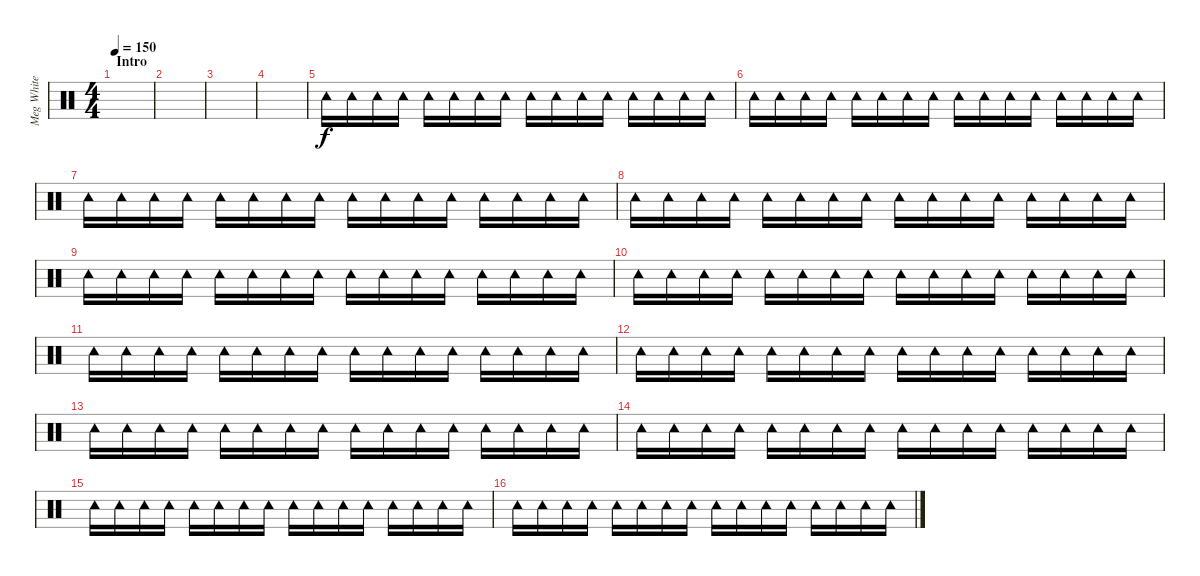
\track ("Meg White - Tambourine" "Meg White ") {instrument percussion}
\staff {score}
\articulation defaults
\ts (4 4)
\section ("" "Intro")
\tempo 150
\clef neutral
\ks c
|
|
|
|
"Tambourine (hit)".16 "Tambourine (hit)".16 "Tambourine (hit)".16 "Tambourine (hit)".16 "Tambourine (hit)".16 "Tambourine (hit)".16 "Tambourine (hit)".16 "Tambourine (hit)".16 "Tambourine (hit)".16 "Tambourine (hit)".16 "Tambourine (hit)".16 "Tambourine (hit)".16 "Tambourine (hit)".16 "Tambourine (hit)".16 "Tambourine (hit)".16 "Tambourine (hit)".16 |
"Tambourine (hit)".16 "Tambourine (hit)".16 "Tambourine (hit)".16 "Tambourine (hit)".16 "Tambourine (hit)".16 "Tambourine (hit)".16 "Tambourine (hit)".16 "Tambourine (hit)".16 "Tambourine (hit)".16 "Tambourine (hit)".16 "Tambourine (hit)".16 "Tambourine (hit)".16 "Tambourine (hit)".16 "Tambourine (hit)".16 "Tambourine (hit)".16 "Tambourine (hit)".16 |
"Tambourine (hit)".16 "Tambourine (hit)".16 "Tambourine (hit)".16 "Tambourine (hit)".16 "Tambourine (hit)".16 "Tambourine (hit)".16 "Tambourine (hit)".16 "Tambourine (hit)".16 "Tambourine (hit)".16 "Tambourine (hit)".16 "Tambourine (hit)".16 "Tambourine (hit)".16 "Tambourine (hit)".16 "Tambourine (hit)".16 "Tambourine (hit)".16 "Tambourine (hit)".16 |
"Tambourine (hit)".16 "Tambourine (hit)".16 "Tambourine (hit)".16 "Tambourine (hit)".16 "Tambourine (hit)".16 "Tambourine (hit)".16 "Tambourine (hit)".16 "Tambourine (hit)".16 "Tambourine (hit)".16 "Tambourine (hit)".16 "Tambourine (hit)".16 "Tambourine (hit)".16 "Tambourine (hit)".16 "Tambourine (hit)".16 "Tambourine (hit)".16 "Tambourine (hit)".16 |
"Tambourine (hit)".16 "Tambourine (hit)".16 "Tambourine (hit)".16 "Tambourine (hit)".16 "Tambourine (hit)".16 "Tambourine (hit)".16 "Tambourine (hit)".16 "Tambourine (hit)".16 "Tambourine (hit)".16 "Tambourine (hit)".16 "Tambourine (hit)".16 "Tambourine (hit)".16 "Tambourine (hit)".16 "Tambourine (hit)".16 "Tambourine (hit)".16 "Tambourine (hit)".16 |
"Tambourine (hit)".16 "Tambourine (hit)".16 "Tambourine (hit)".16 "Tambourine (hit)".16 "Tambourine (hit)".16 "Tambourine (hit)".16 "Tambourine (hit)".16 "Tambourine (hit)".16 "Tambourine (hit)".16 "Tambourine (hit)".16 "Tambourine (hit)".16 "Tambourine (hit)".16 "Tambourine (hit)".16 "Tambourine (hit)".16 "Tambourine (hit)".16 "Tambourine (hit)".16 |
"Tambourine (hit)".16 "Tambourine (hit)".16 "Tambourine (hit)".16 "Tambourine (hit)".16 "Tambourine (hit)".16 "Tambourine (hit)".16 "Tambourine (hit)".16 "Tambourine (hit)".16 "Tambourine (hit)".16 "Tambourine (hit)".16 "Tambourine (hit)".16 "Tambourine (hit)".16 "Tambourine (hit)".16 "Tambourine (hit)".16 "Tambourine (hit)".16 "Tambourine (hit)".16 |
"Tambourine (hit)".16 "Tambourine (hit)".16 "Tambourine (hit)".16 "Tambourine (hit)".16 "Tambourine (hit)".16 "Tambourine (hit)".16 "Tambourine (hit)".16 "Tambourine (hit)".16 "Tambourine (hit)".16 "Tambourine (hit)".16 "Tambourine (hit)".16 "Tambourine (hit)".16 "Tambourine (hit)".16 "Tambourine (hit)".16 "Tambourine (hit)".16 "Tambourine (hit)".16 |
"Tambourine (hit)".16 "Tambourine (hit)".16 "Tambourine (hit)".16 "Tambourine (hit)".16 "Tambourine (hit)".16 "Tambourine (hit)".16 "Tambourine (hit)".16 "Tambourine (hit)".16 "Tambourine (hit)".16 "Tambourine (hit)".16 "Tambourine (hit)".16 "Tambourine (hit)".16 "Tambourine (hit)".16 "Tambourine (hit)".16 "Tambourine (hit)".16 "Tambourine (hit)".16 |
"Tambourine (hit)".16 "Tambourine (hit)".16 "Tambourine (hit)".16 "Tambourine (hit)".16 "Tambourine (hit)".16 "Tambourine (hit)".16 "Tambourine (hit)".16 "Tambourine (hit)".16 "Tambourine (hit)".16 "Tambourine (hit)".16 "Tambourine (hit)".16 "Tambourine (hit)".16 "Tambourine (hit)".16 "Tambourine (hit)".16 "Tambourine (hit)".16 "Tambourine (hit)".16 |
"Tambourine (hit)".16 "Tambourine (hit)".16 "Tambourine (hit)".16 "Tambourine (hit)".16 "Tambourine (hit)".16 "Tambourine (hit)".16 "Tambourine (hit)".16 "Tambourine (hit)".16 "Tambourine (hit)".16 "Tambourine (hit)".16 "Tambourine (hit)".16 "Tambourine (hit)".16 "Tambourine (hit)".16 "Tambourine (hit)".16 "Tambourine (hit)".16 "Tambourine (hit)".16 |
"Tambourine (hit)".16 "Tambourine (hit)".16 "Tambourine (hit)".16 "Tambourine (hit)".16 "Tambourine (hit)".16 "Tambourine (hit)".16 "Tambourine (hit)".16 "Tambourine (hit)".16 "Tambourine (hit)".16 "Tambourine (hit)".16 "Tambourine (hit)".16 "Tambourine (hit)".16 "Tambourine (hit)".16 "Tambourine (hit)".16 "Tambourine (hit)".16 "Tambourine (hit)".16
